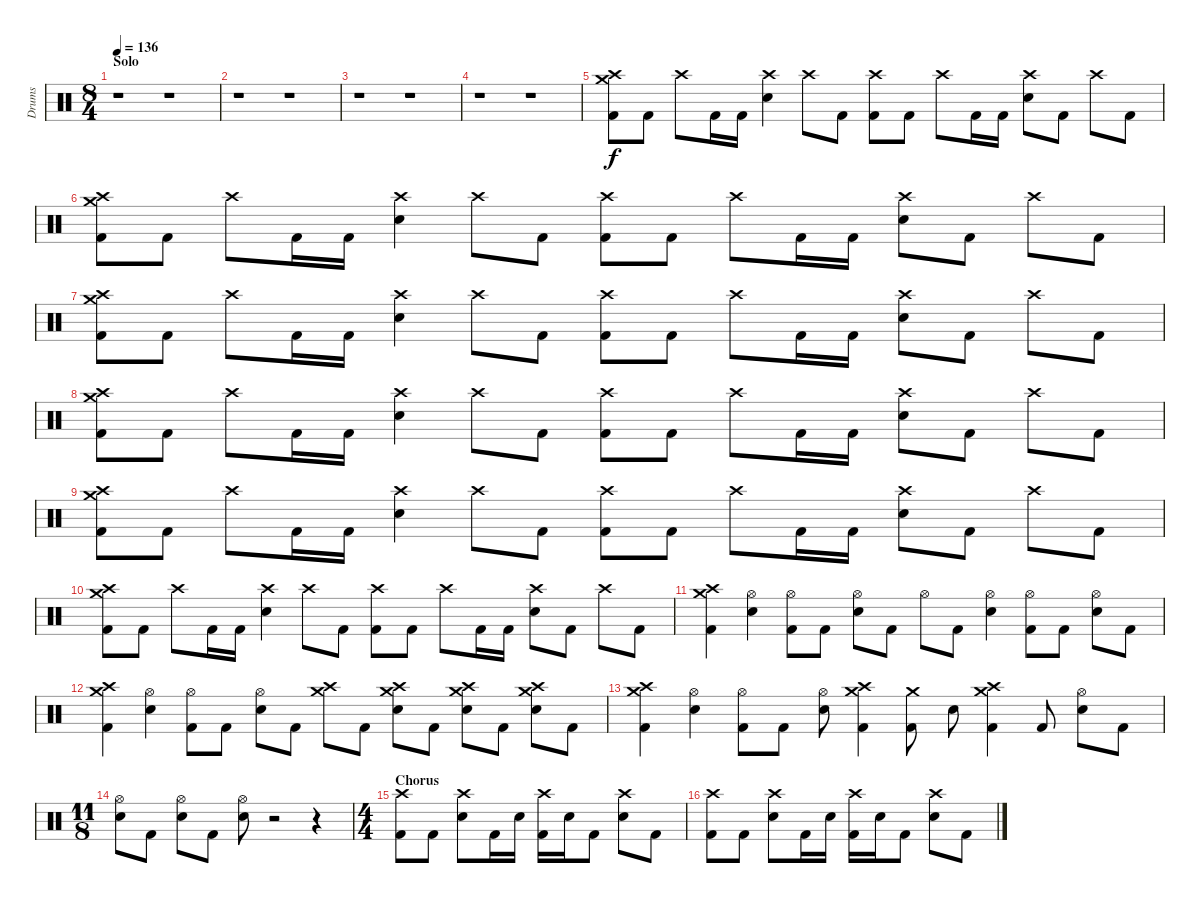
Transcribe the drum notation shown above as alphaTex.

\track ("Drums" "Drums") {instrument percussion}
\staff {score}
\articulation defaults
\ts (8 4)
\section ("" "Solo")
\tempo 136
\clef neutral
\ks c
r.1{dy f} r.1 |
r.1 r.1 |
r.1 r.1 |
r.1 r.1 |
("Crash medium (hit)" "Crash high (hit)" "Kick (hit) 2").8 "Kick (hit) 2".8 "Crash high (hit)".8 "Kick (hit) 2".16 "Kick (hit) 2".16 ("Crash high (hit)" "Electric Snare (hit)").4 "Crash high (hit)".8 "Kick (hit) 2".8 ("Crash high (hit)" "Kick (hit) 2").8 "Kick (hit) 2".8 "Crash high (hit)".8 "Kick (hit) 2".16 "Kick (hit) 2".16 ("Crash high (hit)" "Electric Snare (hit)").8 "Kick (hit) 2".8 "Crash high (hit)".8 "Kick (hit) 2".8 |
("Crash medium (hit)" "Crash high (hit)" "Kick (hit) 2").8 "Kick (hit) 2".8 "Crash high (hit)".8 "Kick (hit) 2".16 "Kick (hit) 2".16 ("Crash high (hit)" "Electric Snare (hit)").4 "Crash high (hit)".8 "Kick (hit) 2".8 ("Crash high (hit)" "Kick (hit) 2").8 "Kick (hit) 2".8 "Crash high (hit)".8 "Kick (hit) 2".16 "Kick (hit) 2".16 ("Crash high (hit)" "Electric Snare (hit)").8 "Kick (hit) 2".8 "Crash high (hit)".8 "Kick (hit) 2".8 |
("Crash medium (hit)" "Crash high (hit)" "Kick (hit) 2").8 "Kick (hit) 2".8 "Crash high (hit)".8 "Kick (hit) 2".16 "Kick (hit) 2".16 ("Crash high (hit)" "Electric Snare (hit)").4 "Crash high (hit)".8 "Kick (hit) 2".8 ("Crash high (hit)" "Kick (hit) 2").8 "Kick (hit) 2".8 "Crash high (hit)".8 "Kick (hit) 2".16 "Kick (hit) 2".16 ("Crash high (hit)" "Electric Snare (hit)").8 "Kick (hit) 2".8 "Crash high (hit)".8 "Kick (hit) 2".8 |
("Crash medium (hit)" "Crash high (hit)" "Kick (hit) 2").8 "Kick (hit) 2".8 "Crash high (hit)".8 "Kick (hit) 2".16 "Kick (hit) 2".16 ("Crash high (hit)" "Electric Snare (hit)").4 "Crash high (hit)".8 "Kick (hit) 2".8 ("Crash high (hit)" "Kick (hit) 2").8 "Kick (hit) 2".8 "Crash high (hit)".8 "Kick (hit) 2".16 "Kick (hit) 2".16 ("Crash high (hit)" "Electric Snare (hit)").8 "Kick (hit) 2".8 "Crash high (hit)".8 "Kick (hit) 2".8 |
("Crash medium (hit)" "Crash high (hit)" "Kick (hit) 2").8 "Kick (hit) 2".8 "Crash high (hit)".8 "Kick (hit) 2".16 "Kick (hit) 2".16 ("Crash high (hit)" "Electric Snare (hit)").4 "Crash high (hit)".8 "Kick (hit) 2".8 ("Crash high (hit)" "Kick (hit) 2").8 "Kick (hit) 2".8 "Crash high (hit)".8 "Kick (hit) 2".16 "Kick (hit) 2".16 ("Crash high (hit)" "Electric Snare (hit)").8 "Kick (hit) 2".8 "Crash high (hit)".8 "Kick (hit) 2".8 |
("Crash medium (hit)" "Crash high (hit)" "Kick (hit) 2").8 "Kick (hit) 2".8 "Crash high (hit)".8 "Kick (hit) 2".16 "Kick (hit) 2".16 ("Crash high (hit)" "Electric Snare (hit)").4 "Crash high (hit)".8 "Kick (hit) 2".8 ("Crash high (hit)" "Kick (hit) 2").8 "Kick (hit) 2".8 "Crash high (hit)".8 "Kick (hit) 2".16 "Kick (hit) 2".16 ("Crash high (hit)" "Electric Snare (hit)").8 "Kick (hit) 2".8 "Crash high (hit)".8 "Kick (hit) 2".8 |
("Crash medium (hit)" "Crash high (hit)" "Kick (hit) 2").4 ("Hi-Hat (open)" "Electric Snare (hit)").4 ("Hi-Hat (open)" "Kick (hit) 2").8 "Kick (hit) 2".8 ("Hi-Hat (open)" "Electric Snare (hit)").8 "Kick (hit) 2".8 "Hi-Hat (open)".8 "Kick (hit) 2".8 ("Hi-Hat (open)" "Electric Snare (hit)").4 ("Hi-Hat (open)" "Kick (hit) 2").8 "Kick (hit) 2".8 ("Hi-Hat (open)" "Electric Snare (hit)").8 "Kick (hit) 2".8 |
("Crash medium (hit)" "Crash high (hit)" "Kick (hit) 2").4 ("Hi-Hat (open)" "Electric Snare (hit)").4 ("Hi-Hat (open)" "Kick (hit) 2").8 "Kick (hit) 2".8 ("Hi-Hat (open)" "Electric Snare (hit)").8 "Kick (hit) 2".8 ("Crash medium (hit)" "Crash high (hit)").8 "Kick (hit) 2".8 ("Crash medium (hit)" "Crash high (hit)" "Electric Snare (hit)").8 "Kick (hit) 2".8 ("Crash medium (hit)" "Crash high (hit)" "Electric Snare (hit)").8 "Kick (hit) 2".8 ("Crash medium (hit)" "Crash high (hit)" "Electric Snare (hit)").8 "Kick (hit) 2".8 |
("Crash medium (hit)" "Crash high (hit)" "Kick (hit) 2").4 ("Hi-Hat (open)" "Electric Snare (hit)").4 ("Hi-Hat (open)" "Kick (hit) 2").8 "Kick (hit) 2".8 ("Hi-Hat (open)" "Electric Snare (hit)").8 ("Crash medium (hit)" "Crash high (hit)" "Kick (hit) 2").4 ("Crash medium (hit)" "Kick (hit) 2").8 "Electric Snare (hit)".8 ("Crash medium (hit)" "Crash high (hit)" "Kick (hit) 2").4 "Kick (hit) 2".8 ("Hi-Hat (open)" "Electric Snare (hit)").8 "Kick (hit) 2".8 |
\ts (11 8)
("Hi-Hat (open)" "Electric Snare (hit)").8 "Kick (hit) 2".8 ("Hi-Hat (open)" "Electric Snare (hit)").8 "Kick (hit) 2".8 ("Hi-Hat (open)" "Electric Snare (hit)").8 r.2 r.4 |
\ts (4 4)
\section ("" "Chorus")
("Crash high (hit)" "Kick (hit) 2").8 "Kick (hit) 2".8 ("Crash high (hit)" "Electric Snare (hit)").8 "Kick (hit) 2".16 "Electric Snare (hit)".16 ("Crash high (hit)" "Kick (hit) 2").16 "Electric Snare (hit)".16 "Kick (hit) 2".8 ("Crash high (hit)" "Electric Snare (hit)").8 "Kick (hit) 2".8 |
("Crash high (hit)" "Kick (hit) 2").8 "Kick (hit) 2".8 ("Crash high (hit)" "Electric Snare (hit)").8 "Kick (hit) 2".16 "Electric Snare (hit)".16 ("Crash high (hit)" "Kick (hit) 2").16 "Electric Snare (hit)".16 "Kick (hit) 2".8 ("Crash high (hit)" "Electric Snare (hit)").8 "Kick (hit) 2".8
